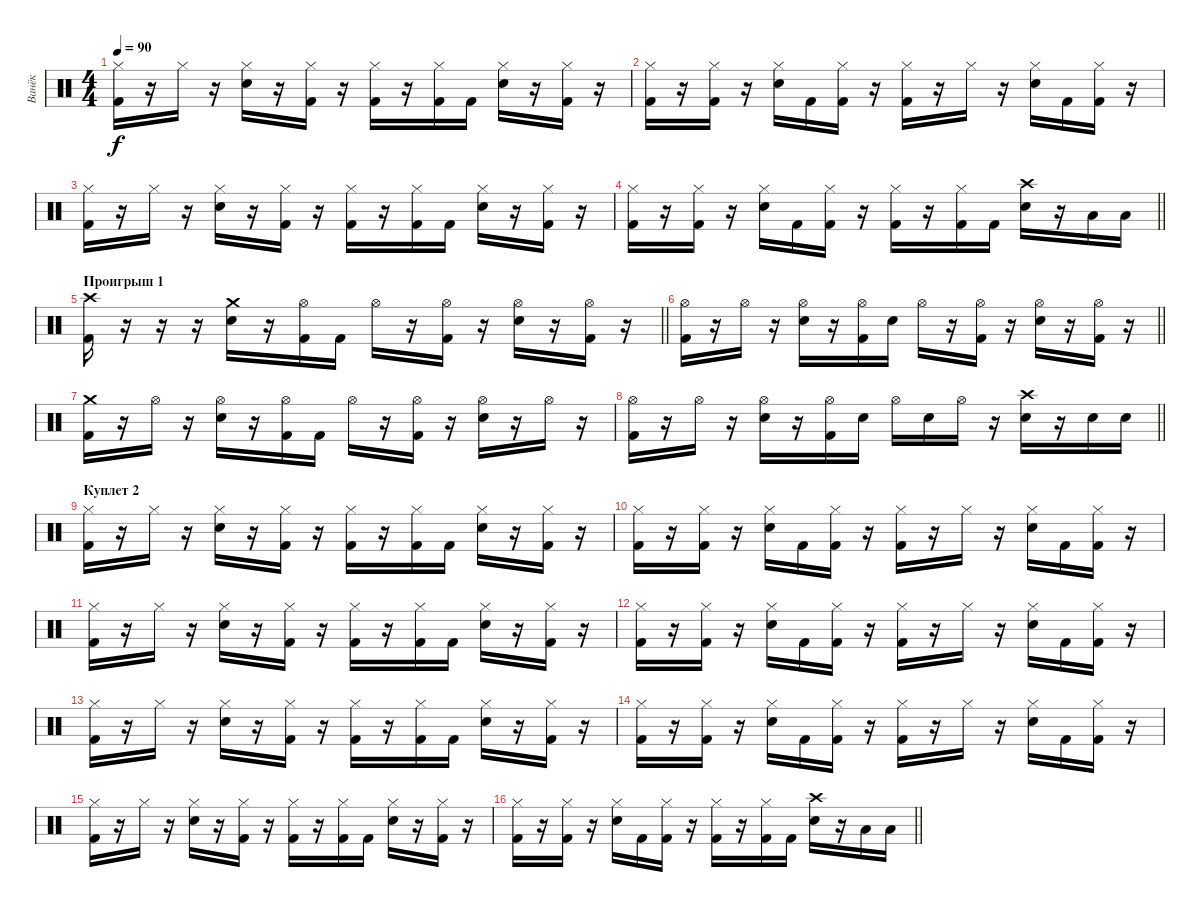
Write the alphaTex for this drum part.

\track ("Ванёк" "Ванёк") {instrument percussion}
\staff {score}
\articulation defaults
\ts (4 4)
\tempo 90
\clef neutral
\ks c
("Hi-Hat (closed)" "Kick (hit) 2").16{dy f} r.16 "Hi-Hat (closed)".16 r.16 ("Hi-Hat (closed)" "Electric Snare (hit)").16 r.16 ("Hi-Hat (closed)" "Kick (hit) 2").16 r.16 ("Hi-Hat (closed)" "Kick (hit) 2").16 r.16 ("Hi-Hat (closed)" "Kick (hit) 2").16 "Kick (hit) 2".16 ("Hi-Hat (closed)" "Electric Snare (hit)").16 r.16 ("Hi-Hat (closed)" "Kick (hit) 2").16 r.16 |
("Hi-Hat (closed)" "Kick (hit) 2").16 r.16 ("Hi-Hat (closed)" "Kick (hit) 2").16 r.16 ("Hi-Hat (closed)" "Electric Snare (hit)").16 "Kick (hit) 2".16 ("Hi-Hat (closed)" "Kick (hit) 2").16 r.16 ("Hi-Hat (closed)" "Kick (hit) 2").16 r.16 "Hi-Hat (closed)".16 r.16 ("Hi-Hat (closed)" "Electric Snare (hit)").16 "Kick (hit) 2".16 ("Hi-Hat (closed)" "Kick (hit) 2").16 r.16 |
("Hi-Hat (closed)" "Kick (hit) 2").16 r.16 "Hi-Hat (closed)".16 r.16 ("Hi-Hat (closed)" "Electric Snare (hit)").16 r.16 ("Hi-Hat (closed)" "Kick (hit) 2").16 r.16 ("Hi-Hat (closed)" "Kick (hit) 2").16 r.16 ("Hi-Hat (closed)" "Kick (hit) 2").16 "Kick (hit) 2".16 ("Hi-Hat (closed)" "Electric Snare (hit)").16 r.16 ("Hi-Hat (closed)" "Kick (hit) 2").16 r.16 |
\barLineRight lightlight
("Hi-Hat (closed)" "Kick (hit) 2").16 r.16 ("Hi-Hat (closed)" "Kick (hit) 2").16 r.16 ("Hi-Hat (closed)" "Electric Snare (hit)").16 "Kick (hit) 2".16 ("Hi-Hat (closed)" "Kick (hit) 2").16 r.16 ("Hi-Hat (closed)" "Kick (hit) 2").16 r.16 ("Hi-Hat (closed)" "Kick (hit) 2").16 "Kick (hit) 2".16 ("Crash high (hit)" "Electric Snare (hit)").16 r.16 "Low Tom (hit)".16 "Low Tom (hit)".16 |
\section ("" "Проигрыш 1")
\barLineRight lightlight
("Crash high (hit)" "Kick (hit) 2").16 r.16 r.16 r.16 ("Crash medium (hit)" "Electric Snare (hit)").16 r.16 ("Hi-Hat (open)" "Kick (hit) 2").16 "Kick (hit) 2".16 "Hi-Hat (open)".16 r.16 ("Hi-Hat (open)" "Kick (hit) 2").16 r.16 ("Hi-Hat (open)" "Electric Snare (hit)").16 r.16 ("Hi-Hat (open)" "Kick (hit) 2").16 r.16 |
\barLineRight lightlight
("Hi-Hat (open)" "Kick (hit) 2").16 r.16 "Hi-Hat (open)".16 r.16 ("Hi-Hat (open)" "Electric Snare (hit)").16 r.16 ("Hi-Hat (open)" "Kick (hit) 2").16 "Electric Snare (hit)".16 "Hi-Hat (open)".16 r.16 ("Hi-Hat (open)" "Kick (hit) 2").16 r.16 ("Hi-Hat (open)" "Electric Snare (hit)").16 r.16 ("Hi-Hat (open)" "Kick (hit) 2").16 r.16 |
("Crash medium (hit)" "Kick (hit) 2").16 r.16 "Hi-Hat (open)".16 r.16 ("Hi-Hat (open)" "Electric Snare (hit)").16 r.16 ("Hi-Hat (open)" "Kick (hit) 2").16 "Kick (hit) 2".16 "Hi-Hat (open)".16 r.16 ("Hi-Hat (open)" "Kick (hit) 2").16 r.16 ("Hi-Hat (open)" "Electric Snare (hit)").16 r.16 "Hi-Hat (open)".16 r.16 |
\barLineRight lightlight
("Hi-Hat (open)" "Kick (hit) 2").16 r.16 "Hi-Hat (open)".16 r.16 ("Hi-Hat (open)" "Electric Snare (hit)").16 r.16 ("Hi-Hat (open)" "Kick (hit) 2").16 "Electric Snare (hit)".16 "Hi-Hat (open)".16 "Electric Snare (hit)".16 "Hi-Hat (open)".16 r.16 ("Crash high (hit)" "Electric Snare (hit)").16 r.16 "Electric Snare (hit)".16 "Electric Snare (hit)".16 |
\section ("" "Куплет 2")
("Hi-Hat (closed)" "Kick (hit) 2").16 r.16 "Hi-Hat (closed)".16 r.16 ("Hi-Hat (closed)" "Electric Snare (hit)").16 r.16 ("Hi-Hat (closed)" "Kick (hit) 2").16 r.16 ("Hi-Hat (closed)" "Kick (hit) 2").16 r.16 ("Hi-Hat (closed)" "Kick (hit) 2").16 "Kick (hit) 2".16 ("Hi-Hat (closed)" "Electric Snare (hit)").16 r.16 ("Hi-Hat (closed)" "Kick (hit) 2").16 r.16 |
("Hi-Hat (closed)" "Kick (hit) 2").16 r.16 ("Hi-Hat (closed)" "Kick (hit) 2").16 r.16 ("Hi-Hat (closed)" "Electric Snare (hit)").16 "Kick (hit) 2".16 ("Hi-Hat (closed)" "Kick (hit) 2").16 r.16 ("Hi-Hat (closed)" "Kick (hit) 2").16 r.16 "Hi-Hat (closed)".16 r.16 ("Hi-Hat (closed)" "Electric Snare (hit)").16 "Kick (hit) 2".16 ("Hi-Hat (closed)" "Kick (hit) 2").16 r.16 |
("Hi-Hat (closed)" "Kick (hit) 2").16 r.16 "Hi-Hat (closed)".16 r.16 ("Hi-Hat (closed)" "Electric Snare (hit)").16 r.16 ("Hi-Hat (closed)" "Kick (hit) 2").16 r.16 ("Hi-Hat (closed)" "Kick (hit) 2").16 r.16 ("Hi-Hat (closed)" "Kick (hit) 2").16 "Kick (hit) 2".16 ("Hi-Hat (closed)" "Electric Snare (hit)").16 r.16 ("Hi-Hat (closed)" "Kick (hit) 2").16 r.16 |
("Hi-Hat (closed)" "Kick (hit) 2").16 r.16 ("Hi-Hat (closed)" "Kick (hit) 2").16 r.16 ("Hi-Hat (closed)" "Electric Snare (hit)").16 "Kick (hit) 2".16 ("Hi-Hat (closed)" "Kick (hit) 2").16 r.16 ("Hi-Hat (closed)" "Kick (hit) 2").16 r.16 "Hi-Hat (closed)".16 r.16 ("Hi-Hat (closed)" "Electric Snare (hit)").16 "Kick (hit) 2".16 ("Hi-Hat (closed)" "Kick (hit) 2").16 r.16 |
("Hi-Hat (closed)" "Kick (hit) 2").16 r.16 "Hi-Hat (closed)".16 r.16 ("Hi-Hat (closed)" "Electric Snare (hit)").16 r.16 ("Hi-Hat (closed)" "Kick (hit) 2").16 r.16 ("Hi-Hat (closed)" "Kick (hit) 2").16 r.16 ("Hi-Hat (closed)" "Kick (hit) 2").16 "Kick (hit) 2".16 ("Hi-Hat (closed)" "Electric Snare (hit)").16 r.16 ("Hi-Hat (closed)" "Kick (hit) 2").16 r.16 |
("Hi-Hat (closed)" "Kick (hit) 2").16 r.16 ("Hi-Hat (closed)" "Kick (hit) 2").16 r.16 ("Hi-Hat (closed)" "Electric Snare (hit)").16 "Kick (hit) 2".16 ("Hi-Hat (closed)" "Kick (hit) 2").16 r.16 ("Hi-Hat (closed)" "Kick (hit) 2").16 r.16 "Hi-Hat (closed)".16 r.16 ("Hi-Hat (closed)" "Electric Snare (hit)").16 "Kick (hit) 2".16 ("Hi-Hat (closed)" "Kick (hit) 2").16 r.16 |
("Hi-Hat (closed)" "Kick (hit) 2").16 r.16 "Hi-Hat (closed)".16 r.16 ("Hi-Hat (closed)" "Electric Snare (hit)").16 r.16 ("Hi-Hat (closed)" "Kick (hit) 2").16 r.16 ("Hi-Hat (closed)" "Kick (hit) 2").16 r.16 ("Hi-Hat (closed)" "Kick (hit) 2").16 "Kick (hit) 2".16 ("Hi-Hat (closed)" "Electric Snare (hit)").16 r.16 ("Hi-Hat (closed)" "Kick (hit) 2").16 r.16 |
\barLineRight lightlight
("Hi-Hat (closed)" "Kick (hit) 2").16 r.16 ("Hi-Hat (closed)" "Kick (hit) 2").16 r.16 ("Hi-Hat (closed)" "Electric Snare (hit)").16 "Kick (hit) 2".16 ("Hi-Hat (closed)" "Kick (hit) 2").16 r.16 ("Hi-Hat (closed)" "Kick (hit) 2").16 r.16 ("Hi-Hat (closed)" "Kick (hit) 2").16 "Kick (hit) 2".16 ("Crash high (hit)" "Electric Snare (hit)").16 r.16 "Low Tom (hit)".16 "Low Tom (hit)".16
